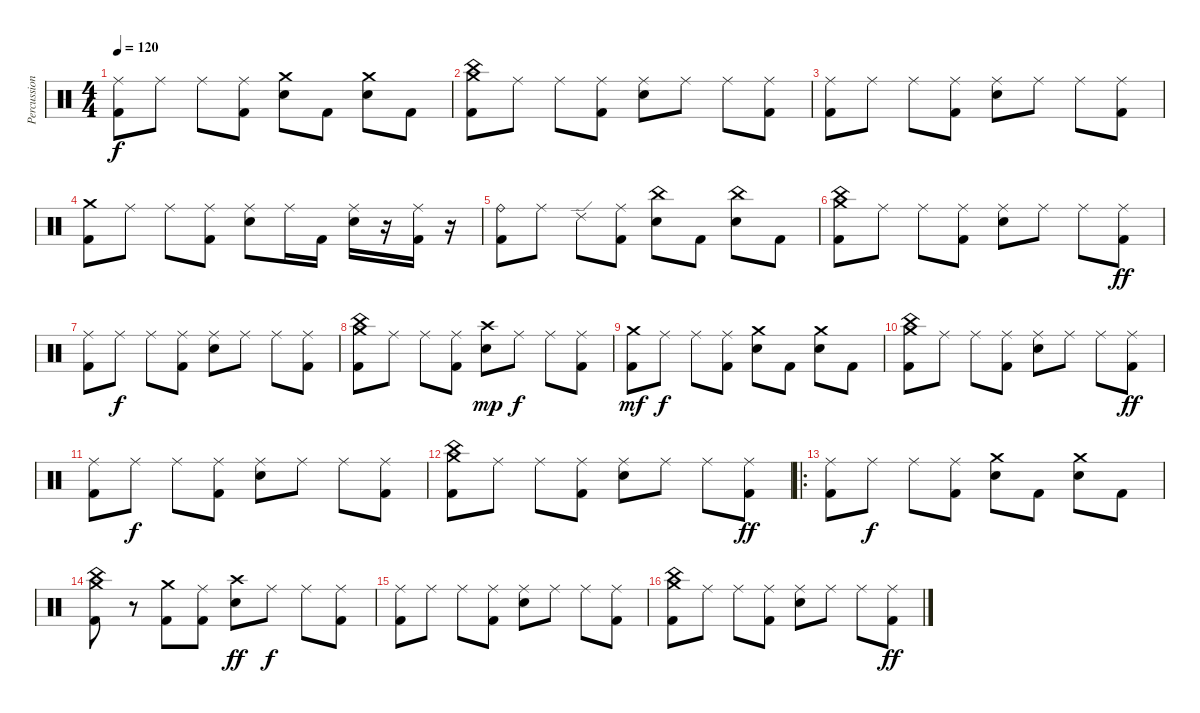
\track ("Percussion" "Percussion") {instrument percussion}
\staff {score}
\articulation defaults
\ts (4 4)
\tempo 120
\clef neutral
\ks c
("Ride (middle)" "Kick (hit) 2").8{dy f} "Ride (middle)".8 "Ride (middle)".8 ("Ride (middle)" "Kick (hit) 2").8 ("Crash medium (hit)" "Snare (hit) 2").8 "Kick (hit) 2".8 ("Crash medium (hit)" "Snare (hit) 2").8 "Kick (hit) 2".8 |
("Crash medium (hit)" "China (hit)" "Kick (hit) 2").8 "Ride (middle)".8 "Ride (middle)".8 ("Ride (middle)" "Kick (hit) 2").8 ("Ride (middle)" "Snare (hit) 2").8 "Ride (middle)".8 "Ride (middle)".8 ("Ride (middle)" "Kick (hit) 2").8 |
("Ride (middle)" "Kick (hit) 2").8 "Ride (middle)".8 "Ride (middle)".8 ("Ride (middle)" "Kick (hit) 2").8 ("Ride (middle)" "Snare (hit) 2").8 "Ride (middle)".8 "Ride (middle)".8 ("Ride (middle)" "Kick (hit) 2").8 |
("Crash medium (hit)" "Kick (hit) 2").8 "Ride (middle)".8 "Ride (middle)".8 ("Ride (middle)" "Kick (hit) 2").8 ("Ride (middle)" "Snare (hit) 2").8 "Ride (middle)".16 "Kick (hit) 2".16 ("Ride (middle)" "Snare (hit) 2").16 r.16 ("Ride (middle)" "Kick (hit) 2").16 r.16 |
("Ride (bell)" "Kick (hit) 2").8 "Ride (middle)".8 "Ride (edge) 2".8 ("Ride (middle)" "Kick (hit) 2").8 ("China (hit)" "Snare (hit) 2").8 "Kick (hit) 2".8 ("China (hit)" "Snare (hit) 2").8 "Kick (hit) 2".8 |
("Crash medium (hit)" "China (hit)" "Kick (hit) 2").8 "Ride (middle)".8 "Ride (middle)".8 ("Ride (middle)" "Kick (hit) 2").8 ("Ride (middle)" "Snare (hit) 2").8 "Ride (middle)".8 "Ride (middle)".8 ("Ride (middle)" "Kick (hit) 2").8{dy ff} |
("Ride (middle)" "Kick (hit) 2").8 "Ride (middle)".8{dy f} "Ride (middle)".8 ("Ride (middle)" "Kick (hit) 2").8 ("Ride (middle)" "Snare (hit) 2").8 "Ride (middle)".8 "Ride (middle)".8 ("Ride (middle)" "Kick (hit) 2").8 |
("Crash medium (hit)" "China (hit)" "Kick (hit) 2").8 "Ride (middle)".8 "Ride (middle)".8 ("Ride (middle)" "Kick (hit) 2").8 ("Crash high (hit)" "Snare (hit) 2").8{dy mp} "Ride (middle)".8{dy f} "Ride (middle)".8 ("Ride (middle)" "Kick (hit) 2").8 |
("Crash medium (hit)" "Kick (hit) 2").8{dy mf} "Ride (middle)".8{dy f} "Ride (middle)".8 ("Ride (middle)" "Kick (hit) 2").8 ("Crash medium (hit)" "Snare (hit) 2").8 "Kick (hit) 2".8 ("Crash medium (hit)" "Snare (hit) 2").8 "Kick (hit) 2".8 |
("Crash medium (hit)" "China (hit)" "Kick (hit) 2").8 "Ride (middle)".8 "Ride (middle)".8 ("Ride (middle)" "Kick (hit) 2").8 ("Ride (middle)" "Snare (hit) 2").8 "Ride (middle)".8 "Ride (middle)".8 ("Ride (middle)" "Kick (hit) 2").8{dy ff} |
("Ride (middle)" "Kick (hit) 2").8 "Ride (middle)".8{dy f} "Ride (middle)".8 ("Ride (middle)" "Kick (hit) 2").8 ("Ride (middle)" "Snare (hit) 2").8 "Ride (middle)".8 "Ride (middle)".8 ("Ride (middle)" "Kick (hit) 2").8 |
("Crash medium (hit)" "China (hit)" "Kick (hit) 2").8 "Ride (middle)".8 "Ride (middle)".8 ("Ride (middle)" "Kick (hit) 2").8 ("Ride (middle)" "Snare (hit) 2").8 "Ride (middle)".8 "Ride (middle)".8 ("Ride (middle)" "Kick (hit) 2").8{dy ff} |
\ro
("Ride (middle)" "Kick (hit) 2").8 "Ride (middle)".8{dy f} "Ride (middle)".8 ("Ride (middle)" "Kick (hit) 2").8 ("Crash medium (hit)" "Snare (hit) 2").8 "Kick (hit) 2".8 ("Crash medium (hit)" "Snare (hit) 2").8 "Kick (hit) 2".8 |
("Crash medium (hit)" "China (hit)" "Kick (hit) 2").8 r.8 ("Crash medium (hit)" "Kick (hit) 2").8 ("Ride (middle)" "Kick (hit) 2").8 ("Crash high (hit)" "Snare (hit) 2").8{dy ff} "Ride (middle)".8{dy f} "Ride (middle)".8 ("Ride (middle)" "Kick (hit) 2").8 |
("Ride (middle)" "Kick (hit) 2").8 "Ride (middle)".8 "Ride (middle)".8 ("Ride (middle)" "Kick (hit) 2").8 ("Ride (middle)" "Snare (hit) 2").8 "Ride (middle)".8 "Ride (middle)".8 ("Ride (middle)" "Kick (hit) 2").8 |
("Crash medium (hit)" "China (hit)" "Kick (hit) 2").8 "Ride (middle)".8 "Ride (middle)".8 ("Ride (middle)" "Kick (hit) 2").8 ("Ride (middle)" "Snare (hit) 2").8 "Ride (middle)".8 "Ride (middle)".8 ("Ride (middle)" "Kick (hit) 2").8{dy ff}
